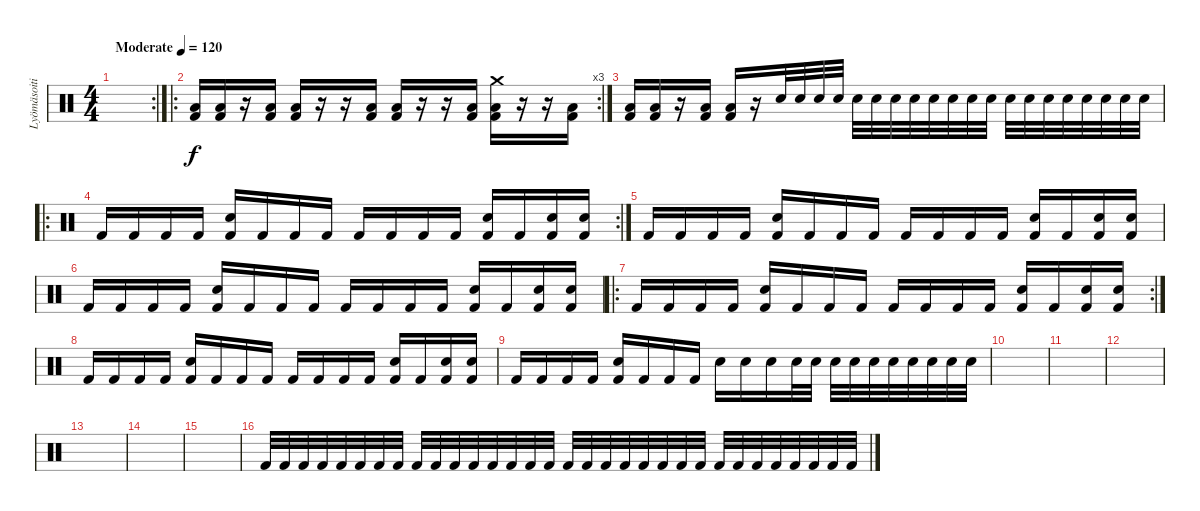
\track ("Lyömäsoitin" "Lyömäsoiti") {instrument percussion}
\staff {score}
\articulation defaults
\rc 2
\ts (4 4)
\tempo (120 "Moderate")
\clef neutral
\ks c
|
\ro
\rc 3
("Kick (hit) 2" "Low Floor Tom (hit)").16 ("Kick (hit) 2" "Low Floor Tom (hit)").16 r.16 ("Kick (hit) 2" "Low Floor Tom (hit)").16 ("Kick (hit) 2" "Low Floor Tom (hit)").16 r.16 r.16 ("Kick (hit) 2" "Low Floor Tom (hit)").16 ("Kick (hit) 2" "Low Floor Tom (hit)").16 r.16 r.16 ("Kick (hit) 2" "Low Floor Tom (hit)").16 ("Kick (hit) 2" "Low Floor Tom (hit)" "Crash medium (hit)").16 r.16 r.16 ("Kick (hit) 2" "Low Floor Tom (hit)").16 |
("Kick (hit) 2" "Low Floor Tom (hit)").16 ("Kick (hit) 2" "Low Floor Tom (hit)").16 r.16 ("Kick (hit) 2" "Low Floor Tom (hit)").16 ("Kick (hit) 2" "Low Floor Tom (hit)").16 r.16 "Electric Snare (hit)".32 "Electric Snare (hit)".32 "Electric Snare (hit)".32 "Electric Snare (hit)".32 "Electric Snare (hit)".32 "Electric Snare (hit)".32 "Electric Snare (hit)".32 "Electric Snare (hit)".32 "Electric Snare (hit)".32 "Electric Snare (hit)".32 "Electric Snare (hit)".32 "Electric Snare (hit)".32 "Electric Snare (hit)".32 "Electric Snare (hit)".32 "Electric Snare (hit)".32 "Electric Snare (hit)".32 "Electric Snare (hit)".32 "Electric Snare (hit)".32 "Electric Snare (hit)".32 "Electric Snare (hit)".32 |
\ro
\rc 2 "Kick (hit) 2".16 "Kick (hit) 2".16 "Kick (hit) 2".16 "Kick (hit) 2".16
("Electric Snare (hit)" "Kick (hit) 2").16 "Kick (hit) 2".16 "Kick (hit) 2".16 "Kick (hit) 2".16 "Kick (hit) 2".16 "Kick (hit) 2".16 "Kick (hit) 2".16 "Kick (hit) 2".16 ("Electric Snare (hit)" "Kick (hit) 2").16 "Kick (hit) 2".16 ("Electric Snare (hit)" "Kick (hit) 2").16 ("Electric Snare (hit)" "Kick (hit) 2").16 |
"Kick (hit) 2".16 "Kick (hit) 2".16 "Kick (hit) 2".16 "Kick (hit) 2".16 ("Electric Snare (hit)" "Kick (hit) 2").16 "Kick (hit) 2".16 "Kick (hit) 2".16 "Kick (hit) 2".16 "Kick (hit) 2".16 "Kick (hit) 2".16 "Kick (hit) 2".16 "Kick (hit) 2".16 ("Electric Snare (hit)" "Kick (hit) 2").16 "Kick (hit) 2".16 ("Electric Snare (hit)" "Kick (hit) 2").16 ("Electric Snare (hit)" "Kick (hit) 2").16 |
"Kick (hit) 2".16 "Kick (hit) 2".16 "Kick (hit) 2".16 "Kick (hit) 2".16 ("Electric Snare (hit)" "Kick (hit) 2").16 "Kick (hit) 2".16 "Kick (hit) 2".16 "Kick (hit) 2".16 "Kick (hit) 2".16 "Kick (hit) 2".16 "Kick (hit) 2".16 "Kick (hit) 2".16 ("Electric Snare (hit)" "Kick (hit) 2").16 "Kick (hit) 2".16 ("Electric Snare (hit)" "Kick (hit) 2").16 ("Electric Snare (hit)" "Kick (hit) 2").16 |
\ro
\rc 2 "Kick (hit) 2".16 "Kick (hit) 2".16 "Kick (hit) 2".16 "Kick (hit) 2".16
("Electric Snare (hit)" "Kick (hit) 2").16 "Kick (hit) 2".16 "Kick (hit) 2".16 "Kick (hit) 2".16 "Kick (hit) 2".16 "Kick (hit) 2".16 "Kick (hit) 2".16 "Kick (hit) 2".16 ("Electric Snare (hit)" "Kick (hit) 2").16 "Kick (hit) 2".16 ("Electric Snare (hit)" "Kick (hit) 2").16 ("Electric Snare (hit)" "Kick (hit) 2").16 |
"Kick (hit) 2".16 "Kick (hit) 2".16 "Kick (hit) 2".16 "Kick (hit) 2".16 ("Electric Snare (hit)" "Kick (hit) 2").16 "Kick (hit) 2".16 "Kick (hit) 2".16 "Kick (hit) 2".16 "Kick (hit) 2".16 "Kick (hit) 2".16 "Kick (hit) 2".16 "Kick (hit) 2".16 ("Electric Snare (hit)" "Kick (hit) 2").16 "Kick (hit) 2".16 ("Electric Snare (hit)" "Kick (hit) 2").16 ("Electric Snare (hit)" "Kick (hit) 2").16 |
"Kick (hit) 2".16 "Kick (hit) 2".16 "Kick (hit) 2".16 "Kick (hit) 2".16 ("Electric Snare (hit)" "Kick (hit) 2").16 "Kick (hit) 2".16 "Kick (hit) 2".16 "Kick (hit) 2".16 "Electric Snare (hit)".16 "Electric Snare (hit)".16 "Electric Snare (hit)".16 "Electric Snare (hit)".32 "Electric Snare (hit)".32 "Electric Snare (hit)".32 "Electric Snare (hit)".32 "Electric Snare (hit)".32 "Electric Snare (hit)".32 "Electric Snare (hit)".32 "Electric Snare (hit)".32 "Electric Snare (hit)".32 "Electric Snare (hit)".32 |
|
|
|
|
|
|
"Kick (hit) 2".32 "Kick (hit) 2".32 "Kick (hit) 2".32 "Kick (hit) 2".32 "Kick (hit) 2".32 "Kick (hit) 2".32 "Kick (hit) 2".32 "Kick (hit) 2".32 "Kick (hit) 2".32 "Kick (hit) 2".32 "Kick (hit) 2".32 "Kick (hit) 2".32 "Kick (hit) 2".32 "Kick (hit) 2".32 "Kick (hit) 2".32 "Kick (hit) 2".32 "Kick (hit) 2".32 "Kick (hit) 2".32 "Kick (hit) 2".32 "Kick (hit) 2".32 "Kick (hit) 2".32 "Kick (hit) 2".32 "Kick (hit) 2".32 "Kick (hit) 2".32 "Kick (hit) 2".32 "Kick (hit) 2".32 "Kick (hit) 2".32 "Kick (hit) 2".32 "Kick (hit) 2".32 "Kick (hit) 2".32 "Kick (hit) 2".32 "Kick (hit) 2".32
